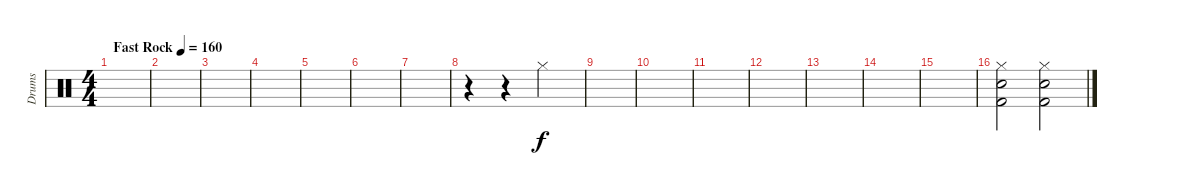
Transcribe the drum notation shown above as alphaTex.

\track ("Drums" "Drums") {instrument percussion}
\staff {score}
\articulation defaults
\ts (4 4)
\tempo (160 "Fast Rock")
\clef neutral
\ks c
|
|
|
|
|
|
|
r.4 r.4 "Hi-Hat (closed)".2 |
|
|
|
|
|
|
|
("Hi-Hat (closed)" "Kick (hit) 2" "Electric Snare (hit)").2 ("Hi-Hat (closed)" "Kick (hit) 2" "Electric Snare (hit)").2
